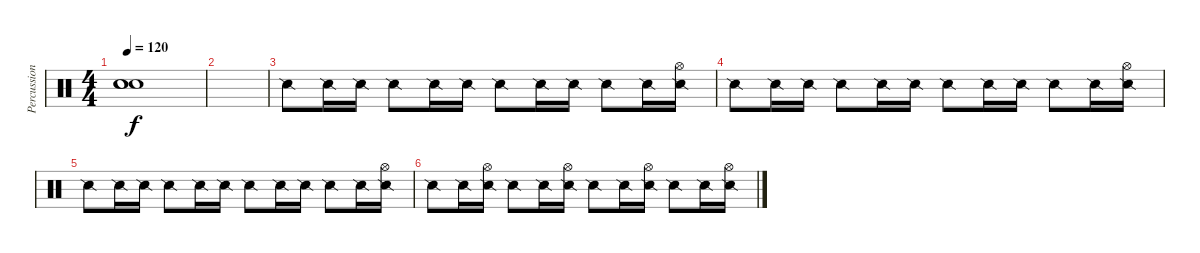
\track ("Percussion" "Percussion") {instrument percussion}
\staff {score}
\articulation defaults
\ts (4 4)
\tempo 120
\clef neutral
\ks c
("Snare (hit)"{t} "Snare (hit)"{t} "Snare (hit)"{t}).1{dy f volume 0} |
|
"Snare (side stick) 2".8 "Snare (side stick) 2".16 "Snare (side stick) 2".16 "Snare (side stick) 2".8 "Snare (side stick) 2".16 "Snare (side stick) 2".16 "Snare (side stick) 2".8 "Snare (side stick) 2".16 "Snare (side stick) 2".16 "Snare (side stick) 2".8 "Snare (side stick) 2".16 ("Snare (side stick) 2" "Hi-Hat (open)").16 |
"Snare (side stick) 2".8 "Snare (side stick) 2".16 "Snare (side stick) 2".16 "Snare (side stick) 2".8 "Snare (side stick) 2".16 "Snare (side stick) 2".16 "Snare (side stick) 2".8 "Snare (side stick) 2".16 "Snare (side stick) 2".16 "Snare (side stick) 2".8 "Snare (side stick) 2".16 ("Snare (side stick) 2" "Hi-Hat (open)").16 |
"Snare (side stick) 2".8 "Snare (side stick) 2".16 "Snare (side stick) 2".16 "Snare (side stick) 2".8 "Snare (side stick) 2".16 "Snare (side stick) 2".16 "Snare (side stick) 2".8 "Snare (side stick) 2".16 "Snare (side stick) 2".16 "Snare (side stick) 2".8 "Snare (side stick) 2".16 ("Snare (side stick) 2" "Hi-Hat (open)").16 |
"Snare (side stick) 2".8 "Snare (side stick) 2".16 ("Snare (side stick) 2" "Hi-Hat (open)").16 "Snare (side stick) 2".8 "Snare (side stick) 2".16 ("Snare (side stick) 2" "Hi-Hat (open)").16 "Snare (side stick) 2".8 "Snare (side stick) 2".16 ("Snare (side stick) 2" "Hi-Hat (open)").16 "Snare (side stick) 2".8 "Snare (side stick) 2".16 ("Snare (side stick) 2" "Hi-Hat (open)").16
